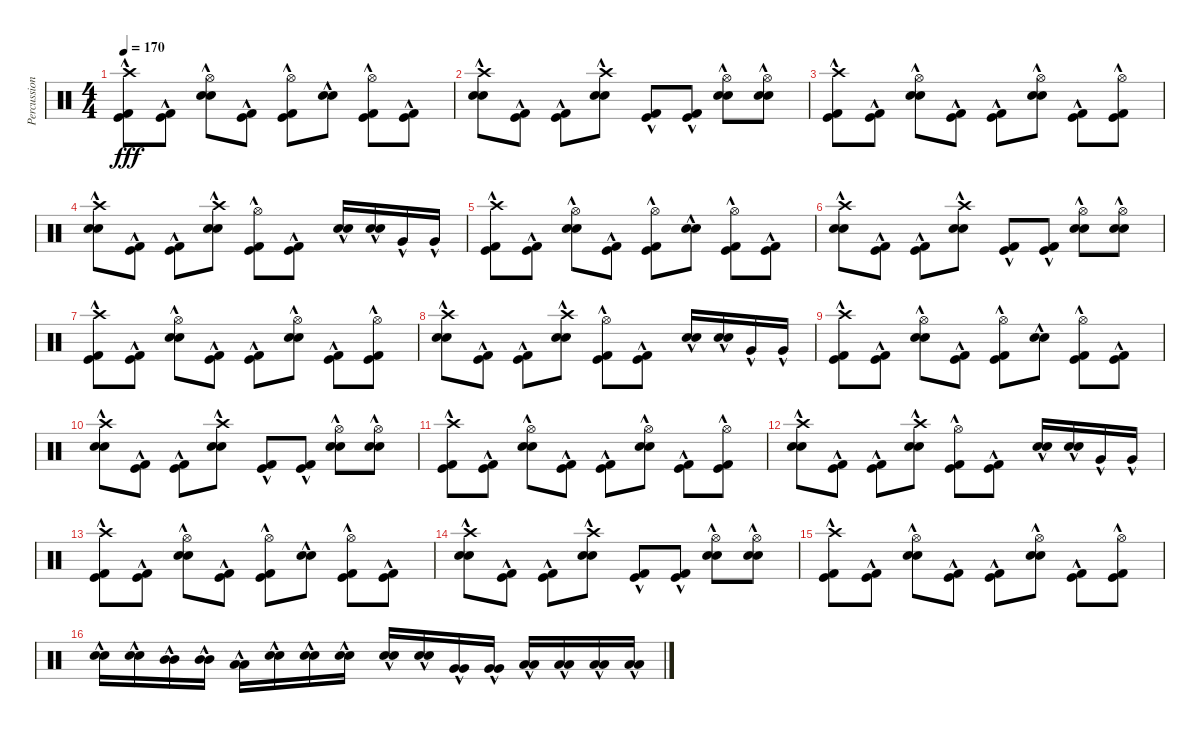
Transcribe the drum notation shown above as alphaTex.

\track ("Percussion" "Percussion") {instrument percussion}
\staff {score}
\articulation defaults
\ts (4 4)
\tempo 170
\clef neutral
\ks c
("Crash high (hit)" "Kick (hit) 2"{hac} "Kick (hit)"{hac}).8{dy fff} ("Kick (hit) 2"{hac} "Kick (hit)"{hac}).8 ("Hi-Hat (open)" "Snare (hit) 2"{hac} "Electric Snare (hit)"{hac}).8 ("Kick (hit) 2"{hac} "Kick (hit)"{hac}).8 ("Hi-Hat (open)" "Kick (hit) 2"{hac} "Kick (hit)"{hac}).8 ("Snare (hit) 2"{hac} "Electric Snare (hit)"{hac}).8 ("Hi-Hat (open)" "Kick (hit) 2"{hac} "Kick (hit)"{hac}).8 ("Kick (hit) 2"{hac} "Kick (hit)"{hac}).8 |
("Crash high (hit)" "Snare (hit) 2"{hac} "Electric Snare (hit)"{hac}).8 ("Kick (hit) 2"{hac} "Kick (hit)"{hac}).8 ("Kick (hit) 2"{hac} "Kick (hit)"{hac}).8 ("Crash high (hit)" "Snare (hit) 2"{hac} "Electric Snare (hit)"{hac}).8 ("Kick (hit) 2"{hac} "Kick (hit)"{hac}).8 ("Kick (hit) 2"{hac} "Kick (hit)"{hac}).8 ("Hi-Hat (open)" "Snare (hit) 2"{hac} "Electric Snare (hit)"{hac}).8 ("Hi-Hat (open)" "Snare (hit) 2"{hac} "Electric Snare (hit)"{hac}).8 |
("Crash high (hit)" "Kick (hit) 2"{hac} "Kick (hit)"{hac}).8 ("Kick (hit) 2"{hac} "Kick (hit)"{hac}).8 ("Hi-Hat (open)" "Snare (hit) 2"{hac} "Electric Snare (hit)"{hac}).8 ("Kick (hit) 2"{hac} "Kick (hit)"{hac}).8 ("Kick (hit) 2"{hac} "Kick (hit)"{hac}).8 ("Hi-Hat (open)" "Snare (hit) 2"{hac} "Electric Snare (hit)"{hac}).8 ("Kick (hit) 2"{hac} "Kick (hit)"{hac}).8 ("Hi-Hat (open)" "Kick (hit) 2"{hac} "Kick (hit)"{hac}).8 |
("Crash high (hit)" "Snare (hit) 2"{hac} "Electric Snare (hit)"{hac}).8 ("Kick (hit) 2"{hac} "Kick (hit)"{hac}).8 ("Kick (hit) 2"{hac} "Kick (hit)"{hac}).8 ("Crash high (hit)" "Snare (hit) 2"{hac} "Electric Snare (hit)"{hac}).8 ("Hi-Hat (open)" "Kick (hit) 2"{hac} "Kick (hit)"{hac}).8 ("Kick (hit) 2"{hac} "Kick (hit)"{hac}).8 ("Snare (hit) 2"{hac} "Electric Snare (hit)"{hac}).16 ("Snare (hit) 2"{hac} "Electric Snare (hit)"{hac}).16 "Very Low Tom (hit)"{hac}.16 "Very Low Tom (hit)"{hac}.16 |
("Crash high (hit)" "Kick (hit) 2"{hac} "Kick (hit)"{hac}).8 ("Kick (hit) 2"{hac} "Kick (hit)"{hac}).8 ("Hi-Hat (open)" "Snare (hit) 2"{hac} "Electric Snare (hit)"{hac}).8 ("Kick (hit) 2"{hac} "Kick (hit)"{hac}).8 ("Hi-Hat (open)" "Kick (hit) 2"{hac} "Kick (hit)"{hac}).8 ("Snare (hit) 2"{hac} "Electric Snare (hit)"{hac}).8 ("Hi-Hat (open)" "Kick (hit) 2"{hac} "Kick (hit)"{hac}).8 ("Kick (hit) 2"{hac} "Kick (hit)"{hac}).8 |
("Crash high (hit)" "Snare (hit) 2"{hac} "Electric Snare (hit)"{hac}).8 ("Kick (hit) 2"{hac} "Kick (hit)"{hac}).8 ("Kick (hit) 2"{hac} "Kick (hit)"{hac}).8 ("Crash high (hit)" "Snare (hit) 2"{hac} "Electric Snare (hit)"{hac}).8 ("Kick (hit) 2"{hac} "Kick (hit)"{hac}).8 ("Kick (hit) 2"{hac} "Kick (hit)"{hac}).8 ("Hi-Hat (open)" "Snare (hit) 2"{hac} "Electric Snare (hit)"{hac}).8 ("Hi-Hat (open)" "Snare (hit) 2"{hac} "Electric Snare (hit)"{hac}).8 |
("Crash high (hit)" "Kick (hit) 2"{hac} "Kick (hit)"{hac}).8 ("Kick (hit) 2"{hac} "Kick (hit)"{hac}).8 ("Hi-Hat (open)" "Snare (hit) 2"{hac} "Electric Snare (hit)"{hac}).8 ("Kick (hit) 2"{hac} "Kick (hit)"{hac}).8 ("Kick (hit) 2"{hac} "Kick (hit)"{hac}).8 ("Hi-Hat (open)" "Snare (hit) 2"{hac} "Electric Snare (hit)"{hac}).8 ("Kick (hit) 2"{hac} "Kick (hit)"{hac}).8 ("Hi-Hat (open)" "Kick (hit) 2"{hac} "Kick (hit)"{hac}).8 |
("Crash high (hit)" "Snare (hit) 2"{hac} "Electric Snare (hit)"{hac}).8 ("Kick (hit) 2"{hac} "Kick (hit)"{hac}).8 ("Kick (hit) 2"{hac} "Kick (hit)"{hac}).8 ("Crash high (hit)" "Snare (hit) 2"{hac} "Electric Snare (hit)"{hac}).8 ("Hi-Hat (open)" "Kick (hit) 2"{hac} "Kick (hit)"{hac}).8 ("Kick (hit) 2"{hac} "Kick (hit)"{hac}).8 ("Snare (hit) 2"{hac} "Electric Snare (hit)"{hac}).16 ("Snare (hit) 2"{hac} "Electric Snare (hit)"{hac}).16 "Very Low Tom (hit)"{hac}.16 "Very Low Tom (hit)"{hac}.16 |
("Crash high (hit)" "Kick (hit) 2"{hac} "Kick (hit)"{hac}).8 ("Kick (hit) 2"{hac} "Kick (hit)"{hac}).8 ("Hi-Hat (open)" "Snare (hit) 2"{hac} "Electric Snare (hit)"{hac}).8 ("Kick (hit) 2"{hac} "Kick (hit)"{hac}).8 ("Hi-Hat (open)" "Kick (hit) 2"{hac} "Kick (hit)"{hac}).8 ("Snare (hit) 2"{hac} "Electric Snare (hit)"{hac}).8 ("Hi-Hat (open)" "Kick (hit) 2"{hac} "Kick (hit)"{hac}).8 ("Kick (hit) 2"{hac} "Kick (hit)"{hac}).8 |
("Crash high (hit)" "Snare (hit) 2"{hac} "Electric Snare (hit)"{hac}).8 ("Kick (hit) 2"{hac} "Kick (hit)"{hac}).8 ("Kick (hit) 2"{hac} "Kick (hit)"{hac}).8 ("Crash high (hit)" "Snare (hit) 2"{hac} "Electric Snare (hit)"{hac}).8 ("Kick (hit) 2"{hac} "Kick (hit)"{hac}).8 ("Kick (hit) 2"{hac} "Kick (hit)"{hac}).8 ("Hi-Hat (open)" "Snare (hit) 2"{hac} "Electric Snare (hit)"{hac}).8 ("Hi-Hat (open)" "Snare (hit) 2"{hac} "Electric Snare (hit)"{hac}).8 |
("Crash high (hit)" "Kick (hit) 2"{hac} "Kick (hit)"{hac}).8 ("Kick (hit) 2"{hac} "Kick (hit)"{hac}).8 ("Hi-Hat (open)" "Snare (hit) 2"{hac} "Electric Snare (hit)"{hac}).8 ("Kick (hit) 2"{hac} "Kick (hit)"{hac}).8 ("Kick (hit) 2"{hac} "Kick (hit)"{hac}).8 ("Hi-Hat (open)" "Snare (hit) 2"{hac} "Electric Snare (hit)"{hac}).8 ("Kick (hit) 2"{hac} "Kick (hit)"{hac}).8 ("Hi-Hat (open)" "Kick (hit) 2"{hac} "Kick (hit)"{hac}).8 |
("Crash high (hit)" "Snare (hit) 2"{hac} "Electric Snare (hit)"{hac}).8 ("Kick (hit) 2"{hac} "Kick (hit)"{hac}).8 ("Kick (hit) 2"{hac} "Kick (hit)"{hac}).8 ("Crash high (hit)" "Snare (hit) 2"{hac} "Electric Snare (hit)"{hac}).8 ("Hi-Hat (open)" "Kick (hit) 2"{hac} "Kick (hit)"{hac}).8 ("Kick (hit) 2"{hac} "Kick (hit)"{hac}).8 ("Snare (hit) 2"{hac} "Electric Snare (hit)"{hac}).16 ("Snare (hit) 2"{hac} "Electric Snare (hit)"{hac}).16 "Very Low Tom (hit)"{hac}.16 "Very Low Tom (hit)"{hac}.16 |
("Crash high (hit)" "Kick (hit) 2"{hac} "Kick (hit)"{hac}).8 ("Kick (hit) 2"{hac} "Kick (hit)"{hac}).8 ("Hi-Hat (open)" "Snare (hit) 2"{hac} "Electric Snare (hit)"{hac}).8 ("Kick (hit) 2"{hac} "Kick (hit)"{hac}).8 ("Hi-Hat (open)" "Kick (hit) 2"{hac} "Kick (hit)"{hac}).8 ("Snare (hit) 2"{hac} "Electric Snare (hit)"{hac}).8 ("Hi-Hat (open)" "Kick (hit) 2"{hac} "Kick (hit)"{hac}).8 ("Kick (hit) 2"{hac} "Kick (hit)"{hac}).8 |
("Crash high (hit)" "Snare (hit) 2"{hac} "Electric Snare (hit)"{hac}).8 ("Kick (hit) 2"{hac} "Kick (hit)"{hac}).8 ("Kick (hit) 2"{hac} "Kick (hit)"{hac}).8 ("Crash high (hit)" "Snare (hit) 2"{hac} "Electric Snare (hit)"{hac}).8 ("Kick (hit) 2"{hac} "Kick (hit)"{hac}).8 ("Kick (hit) 2"{hac} "Kick (hit)"{hac}).8 ("Hi-Hat (open)" "Snare (hit) 2"{hac} "Electric Snare (hit)"{hac}).8 ("Hi-Hat (open)" "Snare (hit) 2"{hac} "Electric Snare (hit)"{hac}).8 |
("Crash high (hit)" "Kick (hit) 2"{hac} "Kick (hit)"{hac}).8 ("Kick (hit) 2"{hac} "Kick (hit)"{hac}).8 ("Hi-Hat (open)" "Snare (hit) 2"{hac} "Electric Snare (hit)"{hac}).8 ("Kick (hit) 2"{hac} "Kick (hit)"{hac}).8 ("Kick (hit) 2"{hac} "Kick (hit)"{hac}).8 ("Hi-Hat (open)" "Snare (hit) 2"{hac} "Electric Snare (hit)"{hac}).8 ("Kick (hit) 2"{hac} "Kick (hit)"{hac}).8 ("Hi-Hat (open)" "Kick (hit) 2"{hac} "Kick (hit)"{hac}).8 |
("Snare (hit) 2"{hac} "Electric Snare (hit)"{hac}).16 ("Snare (hit) 2"{hac} "Electric Snare (hit)"{hac}).16 ("Mid Tom (hit)"{hac} "Mid Tom (hit)"{hac}).16 ("Mid Tom (hit)"{hac} "Mid Tom (hit)"{hac}).16 ("Low Tom (hit)"{hac} "Low Tom (hit)"{hac}).16 ("Snare (hit) 2"{hac} "Electric Snare (hit)"{hac}).16 ("Snare (hit) 2"{hac} "Electric Snare (hit)"{hac}).16 ("Snare (hit) 2"{hac} "Electric Snare (hit)"{hac}).16 ("Snare (hit) 2"{hac} "Electric Snare (hit)"{hac}).16 ("Snare (hit) 2"{hac} "Electric Snare (hit)"{hac}).16 ("Very Low Tom (hit)"{hac} "Very Low Tom (hit)"{hac}).16 ("Very Low Tom (hit)"{hac} "Very Low Tom (hit)"{hac}).16 ("Low Floor Tom (hit)"{hac} "Low Floor Tom (hit)"{hac}).16 ("Low Floor Tom (hit)"{hac} "Low Floor Tom (hit)"{hac}).16 ("Low Floor Tom (hit)"{hac} "Low Floor Tom (hit)"{hac}).16 ("Low Floor Tom (hit)"{hac} "Low Floor Tom (hit)"{hac}).16
